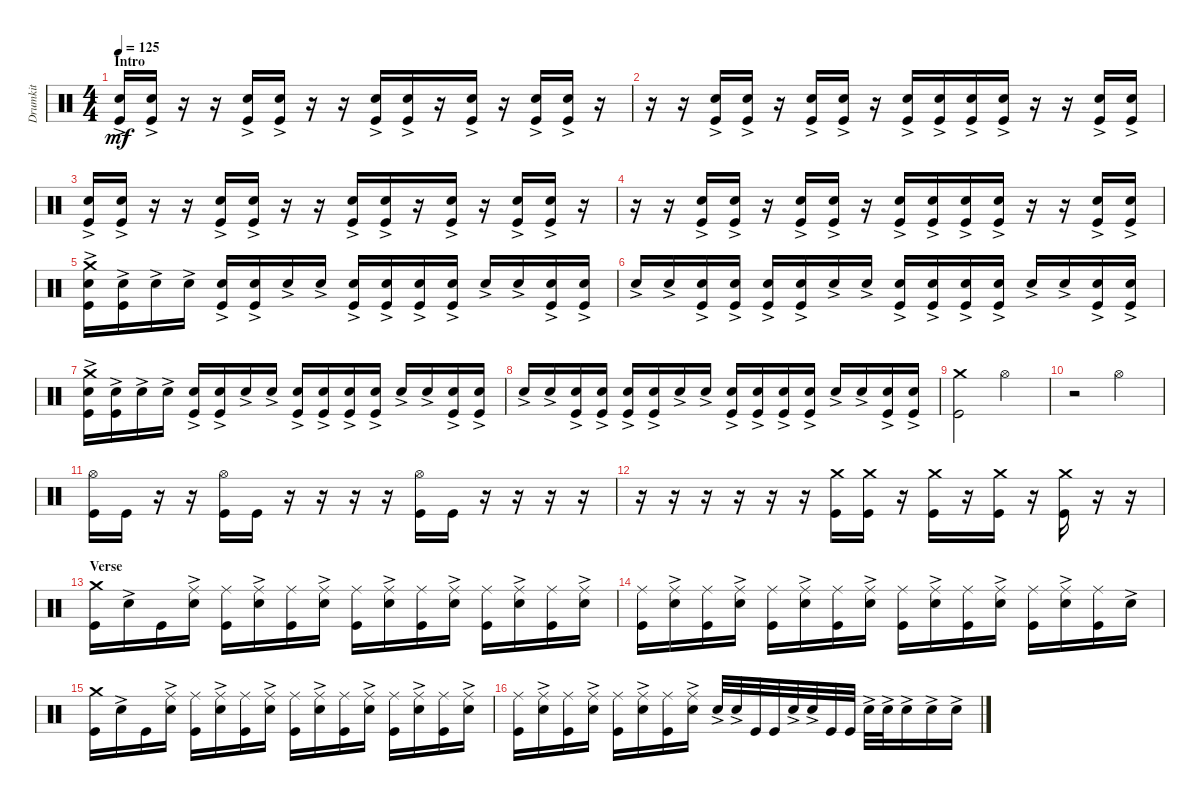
\track ("Drumkit" "Drumkit") {instrument percussion}
\staff {score}
\articulation defaults
\ts (4 4)
\section ("" "Intro")
\tempo 125
\clef neutral
\ks c
("Snare (hit) 2"{ac} "Kick (hit)").16{dy mf} ("Snare (hit) 2"{ac} "Kick (hit)").16 r.16 r.16 ("Snare (hit) 2"{ac} "Kick (hit)").16 ("Snare (hit) 2"{ac} "Kick (hit)").16 r.16 r.16 ("Snare (hit) 2"{ac} "Kick (hit)").16 ("Snare (hit) 2"{ac} "Kick (hit)").16 r.16 ("Snare (hit) 2"{ac} "Kick (hit)").16 r.16 ("Snare (hit) 2"{ac} "Kick (hit)").16 ("Snare (hit) 2"{ac} "Kick (hit)").16 r.16 |
r.16 r.16 ("Snare (hit) 2"{ac} "Kick (hit)").16 ("Snare (hit) 2"{ac} "Kick (hit)").16 r.16 ("Snare (hit) 2"{ac} "Kick (hit)").16 ("Snare (hit) 2"{ac} "Kick (hit)").16 r.16 ("Snare (hit) 2"{ac} "Kick (hit)").16 ("Snare (hit) 2"{ac} "Kick (hit)").16 ("Snare (hit) 2"{ac} "Kick (hit)").16 ("Snare (hit) 2"{ac} "Kick (hit)").16 r.16 r.16 ("Snare (hit) 2"{ac} "Kick (hit)").16 ("Snare (hit) 2"{ac} "Kick (hit)").16 |
("Snare (hit) 2"{ac} "Kick (hit)").16 ("Snare (hit) 2"{ac} "Kick (hit)").16 r.16 r.16 ("Snare (hit) 2"{ac} "Kick (hit)").16 ("Snare (hit) 2"{ac} "Kick (hit)").16 r.16 r.16 ("Snare (hit) 2"{ac} "Kick (hit)").16 ("Snare (hit) 2"{ac} "Kick (hit)").16 r.16 ("Snare (hit) 2"{ac} "Kick (hit)").16 r.16 ("Snare (hit) 2"{ac} "Kick (hit)").16 ("Snare (hit) 2"{ac} "Kick (hit)").16 r.16 |
r.16 r.16 ("Snare (hit) 2"{ac} "Kick (hit)").16 ("Snare (hit) 2"{ac} "Kick (hit)").16 r.16 ("Snare (hit) 2"{ac} "Kick (hit)").16 ("Snare (hit) 2"{ac} "Kick (hit)").16 r.16 ("Snare (hit) 2"{ac} "Kick (hit)").16 ("Snare (hit) 2"{ac} "Kick (hit)").16 ("Snare (hit) 2"{ac} "Kick (hit)").16 ("Snare (hit) 2"{ac} "Kick (hit)").16 r.16 r.16 ("Snare (hit) 2"{ac} "Kick (hit)").16 ("Snare (hit) 2"{ac} "Kick (hit)").16 |
("Snare (hit) 2"{ac} "Kick (hit)" "Crash medium (hit)").16 ("Snare (hit) 2"{ac} "Kick (hit)").16 "Snare (hit) 2"{ac}.16 "Snare (hit) 2"{ac}.16 ("Snare (hit) 2"{ac} "Kick (hit)").16 ("Snare (hit) 2"{ac} "Kick (hit)").16 "Snare (hit) 2"{ac}.16 "Snare (hit) 2"{ac}.16 ("Snare (hit) 2"{ac} "Kick (hit)").16 ("Snare (hit) 2"{ac} "Kick (hit)").16 ("Snare (hit) 2"{ac} "Kick (hit)").16 ("Snare (hit) 2"{ac} "Kick (hit)").16 "Snare (hit) 2"{ac}.16 "Snare (hit) 2"{ac}.16 ("Snare (hit) 2"{ac} "Kick (hit)").16 ("Snare (hit) 2"{ac} "Kick (hit)").16 |
"Snare (hit) 2"{ac}.16 "Snare (hit) 2"{ac}.16 ("Snare (hit) 2"{ac} "Kick (hit)").16 ("Snare (hit) 2"{ac} "Kick (hit)").16 ("Snare (hit) 2"{ac} "Kick (hit)").16 ("Snare (hit) 2"{ac} "Kick (hit)").16 "Snare (hit) 2"{ac}.16 "Snare (hit) 2"{ac}.16 ("Snare (hit) 2"{ac} "Kick (hit)").16 ("Snare (hit) 2"{ac} "Kick (hit)").16 ("Snare (hit) 2"{ac} "Kick (hit)").16 ("Snare (hit) 2"{ac} "Kick (hit)").16 "Snare (hit) 2"{ac}.16 "Snare (hit) 2"{ac}.16 ("Snare (hit) 2"{ac} "Kick (hit)").16 ("Snare (hit) 2"{ac} "Kick (hit)").16 |
("Snare (hit) 2"{ac} "Kick (hit)" "Crash medium (hit)").16 ("Snare (hit) 2"{ac} "Kick (hit)").16 "Snare (hit) 2"{ac}.16 "Snare (hit) 2"{ac}.16 ("Snare (hit) 2"{ac} "Kick (hit)").16 ("Snare (hit) 2"{ac} "Kick (hit)").16 "Snare (hit) 2"{ac}.16 "Snare (hit) 2"{ac}.16 ("Snare (hit) 2"{ac} "Kick (hit)").16 ("Snare (hit) 2"{ac} "Kick (hit)").16 ("Snare (hit) 2"{ac} "Kick (hit)").16 ("Snare (hit) 2"{ac} "Kick (hit)").16 "Snare (hit) 2"{ac}.16 "Snare (hit) 2"{ac}.16 ("Snare (hit) 2"{ac} "Kick (hit)").16 ("Snare (hit) 2"{ac} "Kick (hit)").16 |
"Snare (hit) 2"{ac}.16 "Snare (hit) 2"{ac}.16 ("Snare (hit) 2"{ac} "Kick (hit)").16 ("Snare (hit) 2"{ac} "Kick (hit)").16 ("Snare (hit) 2"{ac} "Kick (hit)").16 ("Snare (hit) 2"{ac} "Kick (hit)").16 "Snare (hit) 2"{ac}.16 "Snare (hit) 2"{ac}.16 ("Snare (hit) 2"{ac} "Kick (hit)").16 ("Snare (hit) 2"{ac} "Kick (hit)").16 ("Snare (hit) 2"{ac} "Kick (hit)").16 ("Snare (hit) 2"{ac} "Kick (hit)").16 "Snare (hit) 2"{ac}.16 "Snare (hit) 2"{ac}.16 ("Snare (hit) 2"{ac} "Kick (hit)").16 ("Snare (hit) 2"{ac} "Kick (hit)").16 |
("Kick (hit)" "Crash medium (hit)").2 "Hi-Hat (open)".2 |
r.2 "Hi-Hat (open)".2 |
("Kick (hit)" "Hi-Hat (open)").16 "Kick (hit)".16 r.16 r.16 ("Kick (hit)" "Hi-Hat (open)").16 "Kick (hit)".16 r.16 r.16 r.16 r.16 ("Kick (hit)" "Hi-Hat (open)").16 "Kick (hit)".16 r.16 r.16 r.16 r.16 |
r.16 r.16 r.16 r.16 r.16 r.16 ("Kick (hit)" "Crash medium (hit)").16 ("Kick (hit)" "Crash medium (hit)").16 r.16 ("Kick (hit)" "Crash medium (hit)").16 r.16 ("Kick (hit)" "Crash medium (hit)").16 r.16 ("Kick (hit)" "Crash medium (hit)").16 r.16 r.16 |
\section ("" "Verse")
("Kick (hit)" "Crash medium (hit)").16 "Snare (hit) 2"{ac}.16 "Kick (hit)".16 ("Snare (hit) 2"{ac} "Ride (middle)").16 ("Kick (hit)" "Ride (middle)").16 ("Snare (hit) 2"{ac} "Ride (middle)").16 ("Kick (hit)" "Ride (middle)").16 ("Snare (hit) 2"{ac} "Ride (middle)").16 ("Kick (hit)" "Ride (middle)").16 ("Snare (hit) 2"{ac} "Ride (middle)").16 ("Kick (hit)" "Ride (middle)").16 ("Snare (hit) 2"{ac} "Ride (middle)").16 ("Kick (hit)" "Ride (middle)").16 ("Snare (hit) 2"{ac} "Ride (middle)").16 ("Kick (hit)" "Ride (middle)").16 ("Snare (hit) 2"{ac} "Ride (middle)").16 |
("Kick (hit)" "Ride (middle)").16 ("Snare (hit) 2"{ac} "Ride (middle)").16 ("Kick (hit)" "Ride (middle)").16 ("Snare (hit) 2"{ac} "Ride (middle)").16 ("Kick (hit)" "Ride (middle)").16 ("Snare (hit) 2"{ac} "Ride (middle)").16 ("Kick (hit)" "Ride (middle)").16 ("Snare (hit) 2"{ac} "Ride (middle)").16 ("Kick (hit)" "Ride (middle)").16 ("Snare (hit) 2"{ac} "Ride (middle)").16 ("Kick (hit)" "Ride (middle)").16 ("Snare (hit) 2"{ac} "Ride (middle)").16 ("Kick (hit)" "Ride (middle)").16 ("Snare (hit) 2"{ac} "Ride (middle)").16 ("Kick (hit)" "Ride (middle)").16 "Snare (hit) 2"{ac}.16 |
("Kick (hit)" "Crash medium (hit)").16 "Snare (hit) 2"{ac}.16 "Kick (hit)".16 ("Snare (hit) 2"{ac} "Ride (middle)").16 ("Kick (hit)" "Ride (middle)").16 ("Snare (hit) 2"{ac} "Ride (middle)").16 ("Kick (hit)" "Ride (middle)").16 ("Snare (hit) 2"{ac} "Ride (middle)").16 ("Kick (hit)" "Ride (middle)").16 ("Snare (hit) 2"{ac} "Ride (middle)").16 ("Kick (hit)" "Ride (middle)").16 ("Snare (hit) 2"{ac} "Ride (middle)").16 ("Kick (hit)" "Ride (middle)").16 ("Snare (hit) 2"{ac} "Ride (middle)").16 ("Kick (hit)" "Ride (middle)").16 ("Snare (hit) 2"{ac} "Ride (middle)").16 |
("Kick (hit)" "Ride (middle)").16 ("Snare (hit) 2"{ac} "Ride (middle)").16 ("Kick (hit)" "Ride (middle)").16 ("Snare (hit) 2"{ac} "Ride (middle)").16 ("Kick (hit)" "Ride (middle)").16 ("Snare (hit) 2"{ac} "Ride (middle)").16 ("Kick (hit)" "Ride (middle)").16 ("Snare (hit) 2"{ac} "Ride (middle)").16 "Snare (hit) 2"{ac}.32 "Snare (hit) 2"{ac}.32 "Kick (hit)".32 "Kick (hit)".32 "Snare (hit) 2"{ac}.32 "Snare (hit) 2"{ac}.32 "Kick (hit)".32 "Kick (hit)".32 "Snare (hit) 2"{ac}.32 "Snare (hit) 2"{ac}.32 "Snare (hit) 2"{ac}.16 "Snare (hit) 2"{ac}.16 "Snare (hit) 2"{ac}.16
